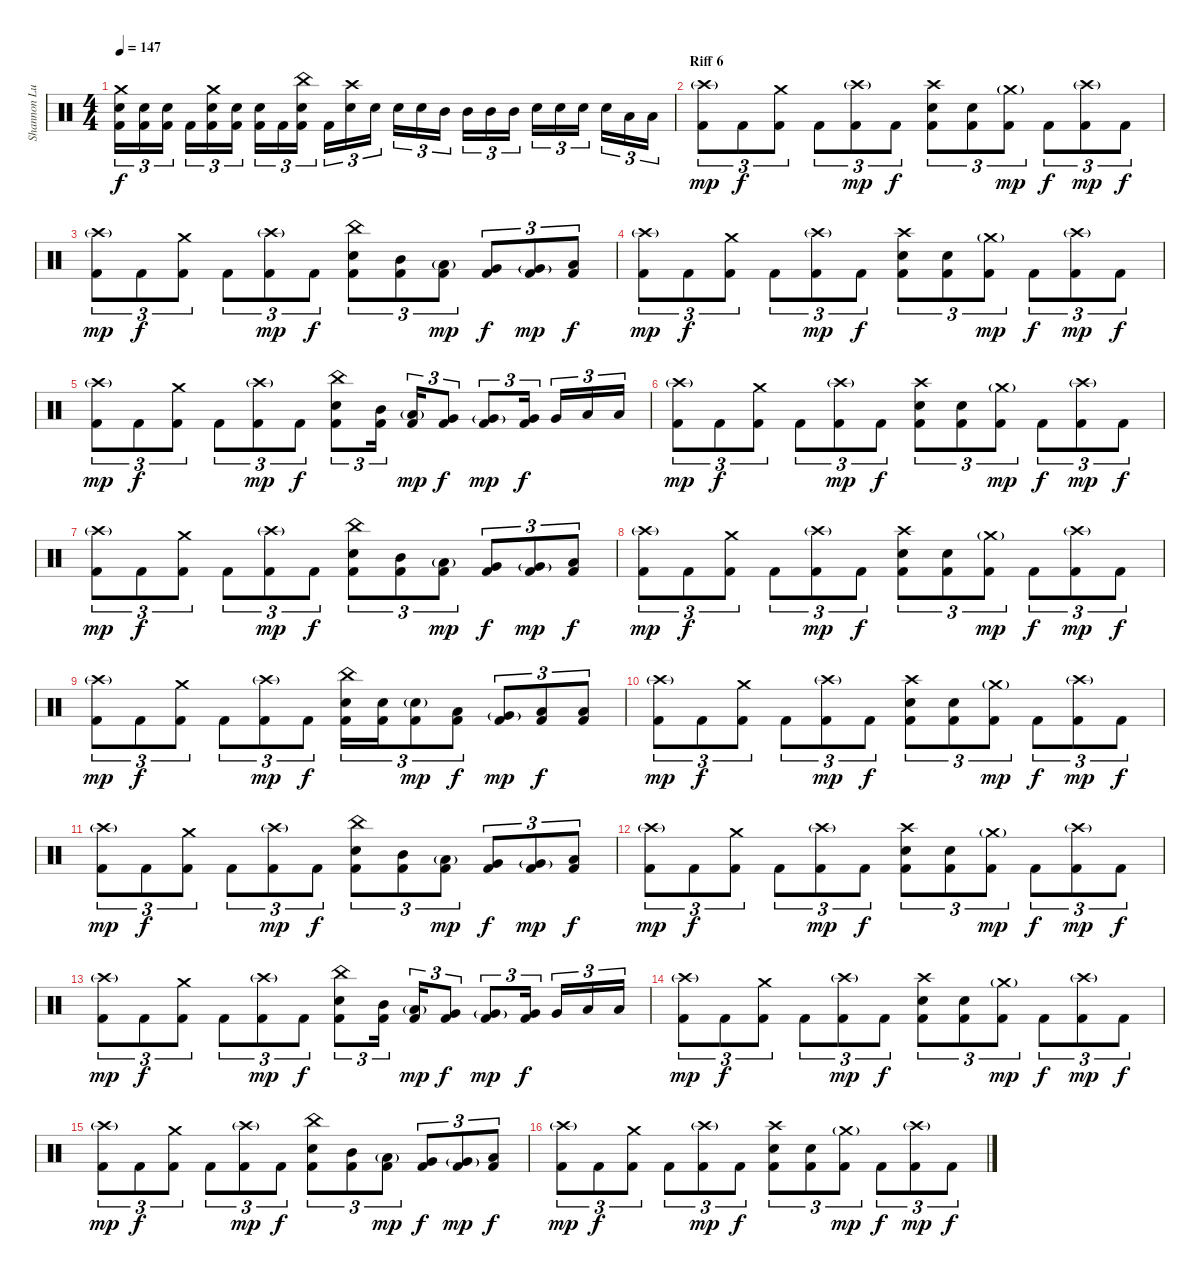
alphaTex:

\track ("Shannon Lucas (Drums)" "Shannon Lu") {instrument percussion}
\staff {score}
\articulation defaults
\ts (4 4)
\tempo 147
\clef neutral
\ks c
("Crash medium (hit)" "Snare (hit) 2" "Kick (hit) 2").16{tu (3 2) dy f} ("Snare (hit) 2" "Kick (hit) 2").16{tu (3 2)} ("Snare (hit) 2" "Kick (hit) 2").16{tu (3 2)} "Kick (hit) 2".16{tu (3 2)} ("Crash medium (hit)" "Snare (hit) 2" "Kick (hit) 2").16{tu (3 2)} ("Snare (hit) 2" "Kick (hit) 2").16{tu (3 2)} ("Snare (hit) 2" "Kick (hit) 2").16{tu (3 2)} "Kick (hit) 2".16{tu (3 2)} ("China (hit)" "Snare (hit) 2" "Kick (hit) 2").16{tu (3 2)} "Kick (hit) 2".16{tu (3 2)} ("Crash high (hit)" "Snare (hit) 2").16{tu (3 2)} "Snare (hit) 2".16{tu (3 2)} "Snare (hit) 2".16{tu (3 2)} "Snare (hit) 2".16{tu (3 2)} "Mid Tom (hit)".16{tu (3 2)} "Mid Tom (hit)".16{tu (3 2)} "Mid Tom (hit)".16{tu (3 2)} "Mid Tom (hit)".16{tu (3 2)} "Snare (hit) 2".16{tu (3 2)} "Snare (hit) 2".16{tu (3 2)} "Snare (hit) 2".16{tu (3 2)} "Snare (hit) 2".16{tu (3 2)} "Low Tom (hit)".16{tu (3 2)} "Low Tom (hit)".16{tu (3 2)} |
\section ("" "Riff 6")
("Crash high (hit)"{g} "Kick (hit) 2").8{tu (3 2) dy mp} "Kick (hit) 2".8{tu (3 2) dy f} ("Crash medium (hit)" "Kick (hit) 2").8{tu (3 2)} "Kick (hit) 2".8{tu (3 2)} ("Crash high (hit)"{g} "Kick (hit) 2").8{tu (3 2) dy mp} "Kick (hit) 2".8{tu (3 2) dy f} ("Crash high (hit)" "Snare (hit) 2" "Kick (hit) 2").8{tu (3 2)} ("Snare (hit) 2" "Kick (hit) 2").8{tu (3 2)} ("Crash medium (hit)"{g} "Kick (hit) 2").8{tu (3 2) dy mp} "Kick (hit) 2".8{tu (3 2) dy f} ("Crash high (hit)"{g} "Kick (hit) 2").8{tu (3 2) dy mp} "Kick (hit) 2".8{tu (3 2) dy f} |
("Crash high (hit)"{g} "Kick (hit) 2").8{tu (3 2) dy mp} "Kick (hit) 2".8{tu (3 2) dy f} ("Crash medium (hit)" "Kick (hit) 2").8{tu (3 2)} "Kick (hit) 2".8{tu (3 2)} ("Crash high (hit)"{g} "Kick (hit) 2").8{tu (3 2) dy mp} "Kick (hit) 2".8{tu (3 2) dy f} ("China (hit)" "Snare (hit) 2" "Kick (hit) 2").8{tu (3 2)} ("Mid Tom (hit)" "Kick (hit) 2").8{tu (3 2)} ("Low Tom (hit)"{g} "Kick (hit) 2").8{tu (3 2) dy mp} ("Very Low Tom (hit)" "Kick (hit) 2").8{tu (3 2) dy f} ("Very Low Tom (hit)"{g} "Kick (hit) 2").8{tu (3 2) dy mp} ("Low Floor Tom (hit)" "Kick (hit) 2").8{tu (3 2) dy f} |
("Crash high (hit)"{g} "Kick (hit) 2").8{tu (3 2) dy mp} "Kick (hit) 2".8{tu (3 2) dy f} ("Crash medium (hit)" "Kick (hit) 2").8{tu (3 2)} "Kick (hit) 2".8{tu (3 2)} ("Crash high (hit)"{g} "Kick (hit) 2").8{tu (3 2) dy mp} "Kick (hit) 2".8{tu (3 2) dy f} ("Crash high (hit)" "Snare (hit) 2" "Kick (hit) 2").8{tu (3 2)} ("Snare (hit) 2" "Kick (hit) 2").8{tu (3 2)} ("Crash medium (hit)"{g} "Kick (hit) 2").8{tu (3 2) dy mp} "Kick (hit) 2".8{tu (3 2) dy f} ("Crash high (hit)"{g} "Kick (hit) 2").8{tu (3 2) dy mp} "Kick (hit) 2".8{tu (3 2) dy f} |
("Crash high (hit)"{g} "Kick (hit) 2").8{tu (3 2) dy mp} "Kick (hit) 2".8{tu (3 2) dy f} ("Crash medium (hit)" "Kick (hit) 2").8{tu (3 2)} "Kick (hit) 2".8{tu (3 2)} ("Crash high (hit)"{g} "Kick (hit) 2").8{tu (3 2) dy mp} "Kick (hit) 2".8{tu (3 2) dy f} ("China (hit)" "Snare (hit) 2" "Kick (hit) 2").8{tu (3 2)} ("Mid Tom (hit)" "Kick (hit) 2").16{tu (3 2)} ("Low Tom (hit)"{g} "Kick (hit) 2").16{tu (3 2) dy mp} ("Very Low Tom (hit)" "Kick (hit) 2").8{tu (3 2) dy f} ("Very Low Tom (hit)"{g} "Kick (hit) 2").8{tu (3 2) dy mp} ("Very Low Tom (hit)" "Kick (hit) 2").16{tu (3 2) dy f} "Very Low Tom (hit)".16{tu (3 2)} "Low Floor Tom (hit)".16{tu (3 2)} "Low Floor Tom (hit)".16{tu (3 2)} |
("Crash high (hit)"{g} "Kick (hit) 2").8{tu (3 2) dy mp} "Kick (hit) 2".8{tu (3 2) dy f} ("Crash medium (hit)" "Kick (hit) 2").8{tu (3 2)} "Kick (hit) 2".8{tu (3 2)} ("Crash high (hit)"{g} "Kick (hit) 2").8{tu (3 2) dy mp} "Kick (hit) 2".8{tu (3 2) dy f} ("Crash high (hit)" "Snare (hit) 2" "Kick (hit) 2").8{tu (3 2)} ("Snare (hit) 2" "Kick (hit) 2").8{tu (3 2)} ("Crash medium (hit)"{g} "Kick (hit) 2").8{tu (3 2) dy mp} "Kick (hit) 2".8{tu (3 2) dy f} ("Crash high (hit)"{g} "Kick (hit) 2").8{tu (3 2) dy mp} "Kick (hit) 2".8{tu (3 2) dy f} |
("Crash high (hit)"{g} "Kick (hit) 2").8{tu (3 2) dy mp} "Kick (hit) 2".8{tu (3 2) dy f} ("Crash medium (hit)" "Kick (hit) 2").8{tu (3 2)} "Kick (hit) 2".8{tu (3 2)} ("Crash high (hit)"{g} "Kick (hit) 2").8{tu (3 2) dy mp} "Kick (hit) 2".8{tu (3 2) dy f} ("China (hit)" "Snare (hit) 2" "Kick (hit) 2").8{tu (3 2)} ("Mid Tom (hit)" "Kick (hit) 2").8{tu (3 2)} ("Low Tom (hit)"{g} "Kick (hit) 2").8{tu (3 2) dy mp} ("Very Low Tom (hit)" "Kick (hit) 2").8{tu (3 2) dy f} ("Very Low Tom (hit)"{g} "Kick (hit) 2").8{tu (3 2) dy mp} ("Low Floor Tom (hit)" "Kick (hit) 2").8{tu (3 2) dy f} |
("Crash high (hit)"{g} "Kick (hit) 2").8{tu (3 2) dy mp} "Kick (hit) 2".8{tu (3 2) dy f} ("Crash medium (hit)" "Kick (hit) 2").8{tu (3 2)} "Kick (hit) 2".8{tu (3 2)} ("Crash high (hit)"{g} "Kick (hit) 2").8{tu (3 2) dy mp} "Kick (hit) 2".8{tu (3 2) dy f} ("Crash high (hit)" "Snare (hit) 2" "Kick (hit) 2").8{tu (3 2)} ("Snare (hit) 2" "Kick (hit) 2").8{tu (3 2)} ("Crash medium (hit)"{g} "Kick (hit) 2").8{tu (3 2) dy mp} "Kick (hit) 2".8{tu (3 2) dy f} ("Crash high (hit)"{g} "Kick (hit) 2").8{tu (3 2) dy mp} "Kick (hit) 2".8{tu (3 2) dy f} |
("Crash high (hit)"{g} "Kick (hit) 2").8{tu (3 2) dy mp} "Kick (hit) 2".8{tu (3 2) dy f} ("Crash medium (hit)" "Kick (hit) 2").8{tu (3 2)} "Kick (hit) 2".8{tu (3 2)} ("Crash high (hit)"{g} "Kick (hit) 2").8{tu (3 2) dy mp} "Kick (hit) 2".8{tu (3 2) dy f} ("China (hit)" "Snare (hit) 2" "Kick (hit) 2").16{tu (3 2)} ("Snare (hit) 2" "Kick (hit) 2").16{tu (3 2)} ("Snare (hit) 2"{g} "Kick (hit) 2").8{tu (3 2) dy mp} ("Low Tom (hit)" "Kick (hit) 2").8{tu (3 2) dy f} ("Very Low Tom (hit)"{g} "Kick (hit) 2").8{tu (3 2) dy mp} ("Low Floor Tom (hit)" "Kick (hit) 2").8{tu (3 2) dy f} ("Low Floor Tom (hit)" "Kick (hit) 2").8{tu (3 2)} |
("Crash high (hit)"{g} "Kick (hit) 2").8{tu (3 2) dy mp} "Kick (hit) 2".8{tu (3 2) dy f} ("Crash medium (hit)" "Kick (hit) 2").8{tu (3 2)} "Kick (hit) 2".8{tu (3 2)} ("Crash high (hit)"{g} "Kick (hit) 2").8{tu (3 2) dy mp} "Kick (hit) 2".8{tu (3 2) dy f} ("Crash high (hit)" "Snare (hit) 2" "Kick (hit) 2").8{tu (3 2)} ("Snare (hit) 2" "Kick (hit) 2").8{tu (3 2)} ("Crash medium (hit)"{g} "Kick (hit) 2").8{tu (3 2) dy mp} "Kick (hit) 2".8{tu (3 2) dy f} ("Crash high (hit)"{g} "Kick (hit) 2").8{tu (3 2) dy mp} "Kick (hit) 2".8{tu (3 2) dy f} |
("Crash high (hit)"{g} "Kick (hit) 2").8{tu (3 2) dy mp} "Kick (hit) 2".8{tu (3 2) dy f} ("Crash medium (hit)" "Kick (hit) 2").8{tu (3 2)} "Kick (hit) 2".8{tu (3 2)} ("Crash high (hit)"{g} "Kick (hit) 2").8{tu (3 2) dy mp} "Kick (hit) 2".8{tu (3 2) dy f} ("China (hit)" "Snare (hit) 2" "Kick (hit) 2").8{tu (3 2)} ("Mid Tom (hit)" "Kick (hit) 2").8{tu (3 2)} ("Low Tom (hit)"{g} "Kick (hit) 2").8{tu (3 2) dy mp} ("Very Low Tom (hit)" "Kick (hit) 2").8{tu (3 2) dy f} ("Very Low Tom (hit)"{g} "Kick (hit) 2").8{tu (3 2) dy mp} ("Low Floor Tom (hit)" "Kick (hit) 2").8{tu (3 2) dy f} |
("Crash high (hit)"{g} "Kick (hit) 2").8{tu (3 2) dy mp} "Kick (hit) 2".8{tu (3 2) dy f} ("Crash medium (hit)" "Kick (hit) 2").8{tu (3 2)} "Kick (hit) 2".8{tu (3 2)} ("Crash high (hit)"{g} "Kick (hit) 2").8{tu (3 2) dy mp} "Kick (hit) 2".8{tu (3 2) dy f} ("Crash high (hit)" "Snare (hit) 2" "Kick (hit) 2").8{tu (3 2)} ("Snare (hit) 2" "Kick (hit) 2").8{tu (3 2)} ("Crash medium (hit)"{g} "Kick (hit) 2").8{tu (3 2) dy mp} "Kick (hit) 2".8{tu (3 2) dy f} ("Crash high (hit)"{g} "Kick (hit) 2").8{tu (3 2) dy mp} "Kick (hit) 2".8{tu (3 2) dy f} |
("Crash high (hit)"{g} "Kick (hit) 2").8{tu (3 2) dy mp} "Kick (hit) 2".8{tu (3 2) dy f} ("Crash medium (hit)" "Kick (hit) 2").8{tu (3 2)} "Kick (hit) 2".8{tu (3 2)} ("Crash high (hit)"{g} "Kick (hit) 2").8{tu (3 2) dy mp} "Kick (hit) 2".8{tu (3 2) dy f} ("China (hit)" "Snare (hit) 2" "Kick (hit) 2").8{tu (3 2)} ("Mid Tom (hit)" "Kick (hit) 2").16{tu (3 2)} ("Low Tom (hit)"{g} "Kick (hit) 2").16{tu (3 2) dy mp} ("Very Low Tom (hit)" "Kick (hit) 2").8{tu (3 2) dy f} ("Very Low Tom (hit)"{g} "Kick (hit) 2").8{tu (3 2) dy mp} ("Very Low Tom (hit)" "Kick (hit) 2").16{tu (3 2) dy f} "Very Low Tom (hit)".16{tu (3 2)} "Low Floor Tom (hit)".16{tu (3 2)} "Low Floor Tom (hit)".16{tu (3 2)} |
("Crash high (hit)"{g} "Kick (hit) 2").8{tu (3 2) dy mp} "Kick (hit) 2".8{tu (3 2) dy f} ("Crash medium (hit)" "Kick (hit) 2").8{tu (3 2)} "Kick (hit) 2".8{tu (3 2)} ("Crash high (hit)"{g} "Kick (hit) 2").8{tu (3 2) dy mp} "Kick (hit) 2".8{tu (3 2) dy f} ("Crash high (hit)" "Snare (hit) 2" "Kick (hit) 2").8{tu (3 2)} ("Snare (hit) 2" "Kick (hit) 2").8{tu (3 2)} ("Crash medium (hit)"{g} "Kick (hit) 2").8{tu (3 2) dy mp} "Kick (hit) 2".8{tu (3 2) dy f} ("Crash high (hit)"{g} "Kick (hit) 2").8{tu (3 2) dy mp} "Kick (hit) 2".8{tu (3 2) dy f} |
("Crash high (hit)"{g} "Kick (hit) 2").8{tu (3 2) dy mp} "Kick (hit) 2".8{tu (3 2) dy f} ("Crash medium (hit)" "Kick (hit) 2").8{tu (3 2)} "Kick (hit) 2".8{tu (3 2)} ("Crash high (hit)"{g} "Kick (hit) 2").8{tu (3 2) dy mp} "Kick (hit) 2".8{tu (3 2) dy f} ("China (hit)" "Snare (hit) 2" "Kick (hit) 2").8{tu (3 2)} ("Mid Tom (hit)" "Kick (hit) 2").8{tu (3 2)} ("Low Tom (hit)"{g} "Kick (hit) 2").8{tu (3 2) dy mp} ("Very Low Tom (hit)" "Kick (hit) 2").8{tu (3 2) dy f} ("Very Low Tom (hit)"{g} "Kick (hit) 2").8{tu (3 2) dy mp} ("Low Floor Tom (hit)" "Kick (hit) 2").8{tu (3 2) dy f} |
("Crash high (hit)"{g} "Kick (hit) 2").8{tu (3 2) dy mp} "Kick (hit) 2".8{tu (3 2) dy f} ("Crash medium (hit)" "Kick (hit) 2").8{tu (3 2)} "Kick (hit) 2".8{tu (3 2)} ("Crash high (hit)"{g} "Kick (hit) 2").8{tu (3 2) dy mp} "Kick (hit) 2".8{tu (3 2) dy f} ("Crash high (hit)" "Snare (hit) 2" "Kick (hit) 2").8{tu (3 2)} ("Snare (hit) 2" "Kick (hit) 2").8{tu (3 2)} ("Crash medium (hit)"{g} "Kick (hit) 2").8{tu (3 2) dy mp} "Kick (hit) 2".8{tu (3 2) dy f} ("Crash high (hit)"{g} "Kick (hit) 2").8{tu (3 2) dy mp} "Kick (hit) 2".8{tu (3 2) dy f}
